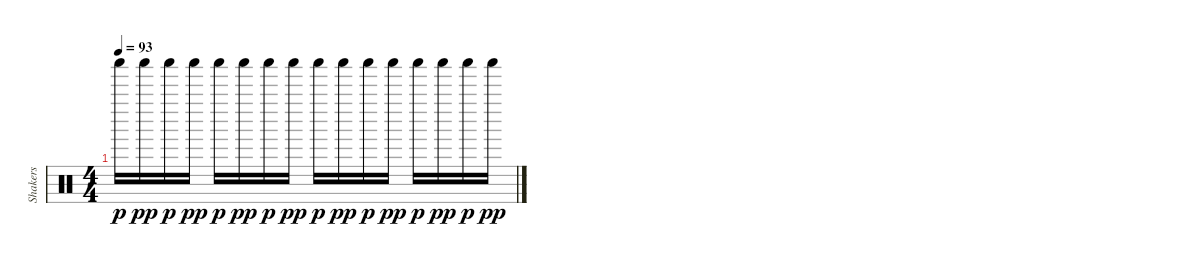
\track ("Shakers" "Shakers") {instrument percussion}
\staff {score}
\articulation defaults
\ts (4 4)
\tempo 93
\clef neutral
\ks c "Shaker (hit)".16{dy p} "Shaker (hit)".16{dy pp} "Shaker (hit)".16{dy p} "Shaker (hit)".16{dy pp} "Shaker (hit)".16{dy p} "Shaker (hit)".16{dy pp} "Shaker (hit)".16{dy p} "Shaker (hit)".16{dy pp} "Shaker (hit)".16{dy p} "Shaker (hit)".16{dy pp} "Shaker (hit)".16{dy p} "Shaker (hit)".16{dy pp} "Shaker (hit)".16{dy p} "Shaker (hit)".16{dy pp} "Shaker (hit)".16{dy p} "Shaker (hit)".16{dy pp}
